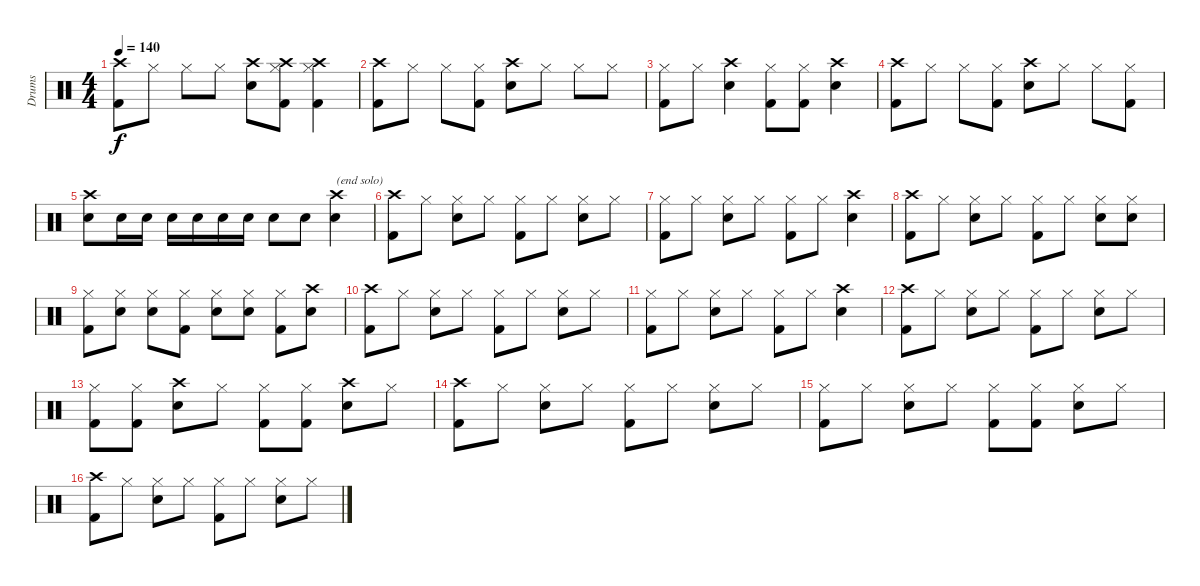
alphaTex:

\track ("Drums" "Drums") {instrument percussion}
\staff {score}
\articulation defaults
\ts (4 4)
\tempo 140
\clef neutral
\ks c
("Crash high (hit)" "Kick (hit) 2").8{dy f} "Hi-Hat (closed)".8 "Hi-Hat (closed)".8 "Hi-Hat (closed)".8 ("Crash high (hit)" "Snare (hit) 2").8 ("Crash high (hit)" "Hi-Hat (closed)" "Kick (hit) 2").8 ("Crash high (hit)" "Hi-Hat (closed)" "Kick (hit) 2").4 |
("Crash high (hit)" "Kick (hit) 2").8 "Hi-Hat (closed)".8 "Hi-Hat (closed)".8 ("Hi-Hat (closed)" "Kick (hit) 2").8 ("Crash high (hit)" "Snare (hit) 2").8 "Hi-Hat (closed)".8 "Hi-Hat (closed)".8 "Hi-Hat (closed)".8 |
("Hi-Hat (closed)" "Kick (hit) 2").8 "Hi-Hat (closed)".8 ("Crash high (hit)" "Snare (hit) 2").4 ("Hi-Hat (closed)" "Kick (hit) 2").8 ("Hi-Hat (closed)" "Kick (hit) 2").8 ("Crash high (hit)" "Snare (hit) 2").4 |
("Crash high (hit)" "Kick (hit) 2").8 "Hi-Hat (closed)".8 "Hi-Hat (closed)".8 ("Hi-Hat (closed)" "Kick (hit) 2").8 ("Crash high (hit)" "Snare (hit) 2").8 "Hi-Hat (closed)".8 "Hi-Hat (closed)".8 ("Hi-Hat (closed)" "Kick (hit) 2").8 |
("Crash high (hit)" "Snare (hit) 2").8 "Snare (hit) 2".16 "Snare (hit) 2".16 "Snare (hit) 2".16 "Snare (hit) 2".16 "Snare (hit) 2".16 "Snare (hit) 2".16 "Snare (hit) 2".8 "Snare (hit) 2".8 ("Crash high (hit)" "Snare (hit) 2").4{txt "(end solo)"} |
("Crash high (hit)" "Kick (hit) 2").8 "Hi-Hat (closed)".8 ("Hi-Hat (closed)" "Snare (hit) 2").8 "Hi-Hat (closed)".8 ("Hi-Hat (closed)" "Kick (hit) 2").8 "Hi-Hat (closed)".8 ("Hi-Hat (closed)" "Snare (hit) 2").8 "Hi-Hat (closed)".8 |
("Hi-Hat (closed)" "Kick (hit) 2").8 "Hi-Hat (closed)".8 ("Hi-Hat (closed)" "Snare (hit) 2").8 "Hi-Hat (closed)".8 ("Hi-Hat (closed)" "Kick (hit) 2").8 "Hi-Hat (closed)".8 ("Crash high (hit)" "Snare (hit) 2").4 |
("Crash high (hit)" "Kick (hit) 2").8 "Hi-Hat (closed)".8 ("Hi-Hat (closed)" "Snare (hit) 2").8 "Hi-Hat (closed)".8 ("Hi-Hat (closed)" "Kick (hit) 2").8 "Hi-Hat (closed)".8 ("Hi-Hat (closed)" "Snare (hit) 2").8 ("Hi-Hat (closed)" "Snare (hit) 2").8 |
("Hi-Hat (closed)" "Kick (hit) 2").8 ("Hi-Hat (closed)" "Snare (hit) 2").8 ("Hi-Hat (closed)" "Snare (hit) 2").8 ("Hi-Hat (closed)" "Kick (hit) 2").8 ("Hi-Hat (closed)" "Snare (hit) 2").8 ("Hi-Hat (closed)" "Snare (hit) 2").8 ("Hi-Hat (closed)" "Kick (hit) 2").8 ("Crash high (hit)" "Snare (hit) 2").8 |
("Crash high (hit)" "Kick (hit) 2").8 "Hi-Hat (closed)".8 ("Hi-Hat (closed)" "Snare (hit) 2").8 "Hi-Hat (closed)".8 ("Hi-Hat (closed)" "Kick (hit) 2").8 "Hi-Hat (closed)".8 ("Hi-Hat (closed)" "Snare (hit) 2").8 "Hi-Hat (closed)".8 |
("Hi-Hat (closed)" "Kick (hit) 2").8 "Hi-Hat (closed)".8 ("Hi-Hat (closed)" "Snare (hit) 2").8 "Hi-Hat (closed)".8 ("Hi-Hat (closed)" "Kick (hit) 2").8 "Hi-Hat (closed)".8 ("Crash high (hit)" "Snare (hit) 2").4 |
("Crash high (hit)" "Kick (hit) 2").8 "Hi-Hat (closed)".8 ("Hi-Hat (closed)" "Snare (hit) 2").8 "Hi-Hat (closed)".8 ("Hi-Hat (closed)" "Kick (hit) 2").8 "Hi-Hat (closed)".8 ("Hi-Hat (closed)" "Snare (hit) 2").8 "Hi-Hat (closed)".8 |
("Hi-Hat (closed)" "Kick (hit) 2").8 ("Hi-Hat (closed)" "Kick (hit) 2").8 ("Crash high (hit)" "Snare (hit) 2").8 "Hi-Hat (closed)".8 ("Hi-Hat (closed)" "Kick (hit) 2").8 ("Hi-Hat (closed)" "Kick (hit) 2").8 ("Crash high (hit)" "Snare (hit) 2").8 "Hi-Hat (closed)".8 |
("Crash high (hit)" "Kick (hit) 2").8 "Hi-Hat (closed)".8 ("Hi-Hat (closed)" "Snare (hit) 2").8 "Hi-Hat (closed)".8 ("Hi-Hat (closed)" "Kick (hit) 2").8 "Hi-Hat (closed)".8 ("Hi-Hat (closed)" "Snare (hit) 2").8 "Hi-Hat (closed)".8 |
("Hi-Hat (closed)" "Kick (hit) 2").8 "Hi-Hat (closed)".8 ("Hi-Hat (closed)" "Snare (hit) 2").8 "Hi-Hat (closed)".8 ("Hi-Hat (closed)" "Kick (hit) 2").8 ("Hi-Hat (closed)" "Kick (hit) 2").8 ("Hi-Hat (closed)" "Snare (hit) 2").8 "Hi-Hat (closed)".8 |
("Crash high (hit)" "Kick (hit) 2").8 "Hi-Hat (closed)".8 ("Hi-Hat (closed)" "Snare (hit) 2").8 "Hi-Hat (closed)".8 ("Hi-Hat (closed)" "Kick (hit) 2").8 "Hi-Hat (closed)".8 ("Hi-Hat (closed)" "Snare (hit) 2").8 "Hi-Hat (closed)".8
